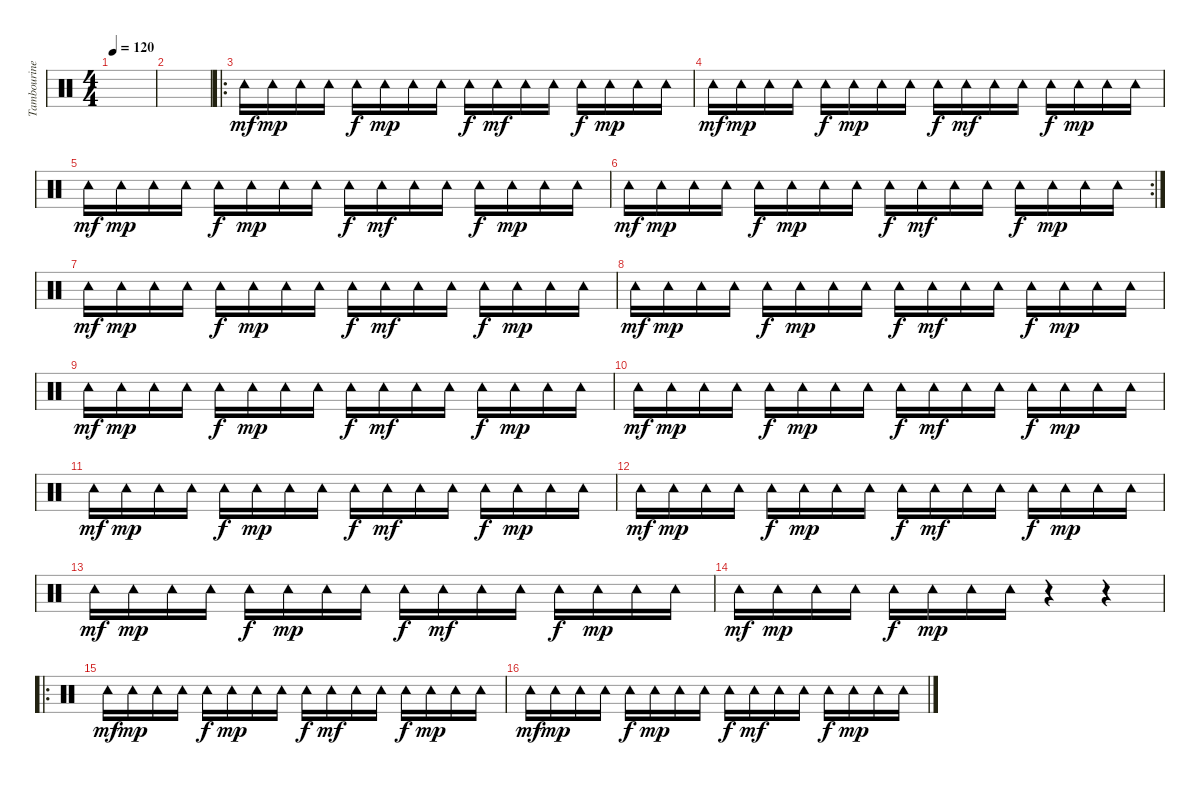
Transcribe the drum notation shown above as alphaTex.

\track ("Tambourine Fills" "Tambourine") {instrument percussion}
\staff {score}
\articulation defaults
\ts (4 4)
\tempo 120
\clef neutral
\ks c
|
|
\ro "Tambourine (hit)".16{dy mf} "Tambourine (hit)".16{dy mp} "Tambourine (hit)".16 "Tambourine (hit)".16 "Tambourine (hit)".16{dy f} "Tambourine (hit)".16{dy mp} "Tambourine (hit)".16 "Tambourine (hit)".16 "Tambourine (hit)".16{dy f} "Tambourine (hit)".16{dy mf} "Tambourine (hit)".16 "Tambourine (hit)".16 "Tambourine (hit)".16{dy f} "Tambourine (hit)".16{dy mp} "Tambourine (hit)".16 "Tambourine (hit)".16
|
"Tambourine (hit)".16{dy mf} "Tambourine (hit)".16{dy mp} "Tambourine (hit)".16 "Tambourine (hit)".16 "Tambourine (hit)".16{dy f} "Tambourine (hit)".16{dy mp} "Tambourine (hit)".16 "Tambourine (hit)".16 "Tambourine (hit)".16{dy f} "Tambourine (hit)".16{dy mf} "Tambourine (hit)".16 "Tambourine (hit)".16 "Tambourine (hit)".16{dy f} "Tambourine (hit)".16{dy mp} "Tambourine (hit)".16 "Tambourine (hit)".16 |
"Tambourine (hit)".16{dy mf} "Tambourine (hit)".16{dy mp} "Tambourine (hit)".16 "Tambourine (hit)".16 "Tambourine (hit)".16{dy f} "Tambourine (hit)".16{dy mp} "Tambourine (hit)".16 "Tambourine (hit)".16 "Tambourine (hit)".16{dy f} "Tambourine (hit)".16{dy mf} "Tambourine (hit)".16 "Tambourine (hit)".16 "Tambourine (hit)".16{dy f} "Tambourine (hit)".16{dy mp} "Tambourine (hit)".16 "Tambourine (hit)".16 |
\rc 2 "Tambourine (hit)".16{dy mf} "Tambourine (hit)".16{dy mp} "Tambourine (hit)".16 "Tambourine (hit)".16 "Tambourine (hit)".16{dy f} "Tambourine (hit)".16{dy mp} "Tambourine (hit)".16 "Tambourine (hit)".16 "Tambourine (hit)".16{dy f} "Tambourine (hit)".16{dy mf} "Tambourine (hit)".16 "Tambourine (hit)".16 "Tambourine (hit)".16{dy f} "Tambourine (hit)".16{dy mp} "Tambourine (hit)".16 "Tambourine (hit)".16
|
"Tambourine (hit)".16{dy mf} "Tambourine (hit)".16{dy mp} "Tambourine (hit)".16 "Tambourine (hit)".16 "Tambourine (hit)".16{dy f} "Tambourine (hit)".16{dy mp} "Tambourine (hit)".16 "Tambourine (hit)".16 "Tambourine (hit)".16{dy f} "Tambourine (hit)".16{dy mf} "Tambourine (hit)".16 "Tambourine (hit)".16 "Tambourine (hit)".16{dy f} "Tambourine (hit)".16{dy mp} "Tambourine (hit)".16 "Tambourine (hit)".16 |
"Tambourine (hit)".16{dy mf} "Tambourine (hit)".16{dy mp} "Tambourine (hit)".16 "Tambourine (hit)".16 "Tambourine (hit)".16{dy f} "Tambourine (hit)".16{dy mp} "Tambourine (hit)".16 "Tambourine (hit)".16 "Tambourine (hit)".16{dy f} "Tambourine (hit)".16{dy mf} "Tambourine (hit)".16 "Tambourine (hit)".16 "Tambourine (hit)".16{dy f} "Tambourine (hit)".16{dy mp} "Tambourine (hit)".16 "Tambourine (hit)".16 |
"Tambourine (hit)".16{dy mf} "Tambourine (hit)".16{dy mp} "Tambourine (hit)".16 "Tambourine (hit)".16 "Tambourine (hit)".16{dy f} "Tambourine (hit)".16{dy mp} "Tambourine (hit)".16 "Tambourine (hit)".16 "Tambourine (hit)".16{dy f} "Tambourine (hit)".16{dy mf} "Tambourine (hit)".16 "Tambourine (hit)".16 "Tambourine (hit)".16{dy f} "Tambourine (hit)".16{dy mp} "Tambourine (hit)".16 "Tambourine (hit)".16 |
"Tambourine (hit)".16{dy mf} "Tambourine (hit)".16{dy mp} "Tambourine (hit)".16 "Tambourine (hit)".16 "Tambourine (hit)".16{dy f} "Tambourine (hit)".16{dy mp} "Tambourine (hit)".16 "Tambourine (hit)".16 "Tambourine (hit)".16{dy f} "Tambourine (hit)".16{dy mf} "Tambourine (hit)".16 "Tambourine (hit)".16 "Tambourine (hit)".16{dy f} "Tambourine (hit)".16{dy mp} "Tambourine (hit)".16 "Tambourine (hit)".16 |
"Tambourine (hit)".16{dy mf} "Tambourine (hit)".16{dy mp} "Tambourine (hit)".16 "Tambourine (hit)".16 "Tambourine (hit)".16{dy f} "Tambourine (hit)".16{dy mp} "Tambourine (hit)".16 "Tambourine (hit)".16 "Tambourine (hit)".16{dy f} "Tambourine (hit)".16{dy mf} "Tambourine (hit)".16 "Tambourine (hit)".16 "Tambourine (hit)".16{dy f} "Tambourine (hit)".16{dy mp} "Tambourine (hit)".16 "Tambourine (hit)".16 |
"Tambourine (hit)".16{dy mf} "Tambourine (hit)".16{dy mp} "Tambourine (hit)".16 "Tambourine (hit)".16 "Tambourine (hit)".16{dy f} "Tambourine (hit)".16{dy mp} "Tambourine (hit)".16 "Tambourine (hit)".16 "Tambourine (hit)".16{dy f} "Tambourine (hit)".16{dy mf} "Tambourine (hit)".16 "Tambourine (hit)".16 "Tambourine (hit)".16{dy f} "Tambourine (hit)".16{dy mp} "Tambourine (hit)".16 "Tambourine (hit)".16 |
"Tambourine (hit)".16{dy mf} "Tambourine (hit)".16{dy mp} "Tambourine (hit)".16 "Tambourine (hit)".16 "Tambourine (hit)".16{dy f} "Tambourine (hit)".16{dy mp} "Tambourine (hit)".16 "Tambourine (hit)".16 "Tambourine (hit)".16{dy f} "Tambourine (hit)".16{dy mf} "Tambourine (hit)".16 "Tambourine (hit)".16 "Tambourine (hit)".16{dy f} "Tambourine (hit)".16{dy mp} "Tambourine (hit)".16 "Tambourine (hit)".16 |
"Tambourine (hit)".16{dy mf} "Tambourine (hit)".16{dy mp} "Tambourine (hit)".16 "Tambourine (hit)".16 "Tambourine (hit)".16{dy f} "Tambourine (hit)".16{dy mp} "Tambourine (hit)".16 "Tambourine (hit)".16 r.4 r.4 |
\ro "Tambourine (hit)".16{dy mf} "Tambourine (hit)".16{dy mp} "Tambourine (hit)".16 "Tambourine (hit)".16 "Tambourine (hit)".16{dy f} "Tambourine (hit)".16{dy mp} "Tambourine (hit)".16 "Tambourine (hit)".16 "Tambourine (hit)".16{dy f} "Tambourine (hit)".16{dy mf} "Tambourine (hit)".16 "Tambourine (hit)".16 "Tambourine (hit)".16{dy f} "Tambourine (hit)".16{dy mp} "Tambourine (hit)".16 "Tambourine (hit)".16
|
"Tambourine (hit)".16{dy mf} "Tambourine (hit)".16{dy mp} "Tambourine (hit)".16 "Tambourine (hit)".16 "Tambourine (hit)".16{dy f} "Tambourine (hit)".16{dy mp} "Tambourine (hit)".16 "Tambourine (hit)".16 "Tambourine (hit)".16{dy f} "Tambourine (hit)".16{dy mf} "Tambourine (hit)".16 "Tambourine (hit)".16 "Tambourine (hit)".16{dy f} "Tambourine (hit)".16{dy mp} "Tambourine (hit)".16 "Tambourine (hit)".16
